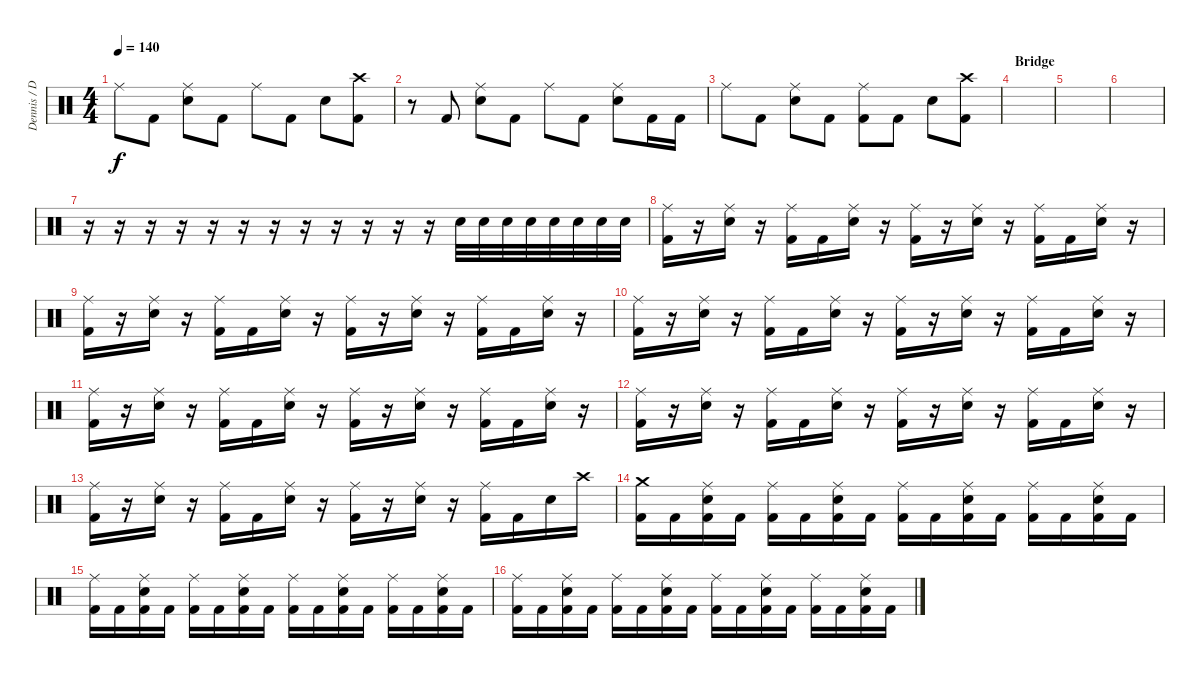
\track ("Dennis / Drums" "Dennis / D") {instrument percussion}
\staff {score}
\articulation defaults
\ts (4 4)
\tempo 140
\clef neutral
\ks c "Ride (middle)".8{dy f} "Kick (hit) 2".8
("Ride (middle)" "Electric Snare (hit)").8 "Kick (hit) 2".8 "Ride (middle)".8 "Kick (hit) 2".8 "Electric Snare (hit)".8 ("Crash high (hit)" "Kick (hit) 2").8 |
r.8 "Kick (hit) 2".8 ("Ride (middle)" "Electric Snare (hit)").8 "Kick (hit) 2".8 "Ride (middle)".8 "Kick (hit) 2".8 ("Ride (middle)" "Electric Snare (hit)").8 "Kick (hit) 2".16 "Kick (hit) 2".16 |
"Ride (middle)".8 "Kick (hit) 2".8 ("Ride (middle)" "Electric Snare (hit)").8 "Kick (hit) 2".8 ("Ride (middle)" "Kick (hit) 2").8 "Kick (hit) 2".8 "Electric Snare (hit)".8 ("Crash high (hit)" "Kick (hit) 2").8 |
\section ("" "Bridge")
|
|
|
r.16 r.16 r.16 r.16 r.16 r.16 r.16 r.16 r.16 r.16 r.16 r.16 "Electric Snare (hit)".32 "Electric Snare (hit)".32 "Electric Snare (hit)".32 "Electric Snare (hit)".32 "Electric Snare (hit)".32 "Electric Snare (hit)".32 "Electric Snare (hit)".32 "Electric Snare (hit)".32 |
("Ride (middle)" "Kick (hit) 2").16 r.16 ("Ride (middle)" "Electric Snare (hit)").16 r.16 ("Ride (middle)" "Kick (hit) 2").16 "Kick (hit) 2".16 ("Ride (middle)" "Electric Snare (hit)").16 r.16 ("Ride (middle)" "Kick (hit) 2").16 r.16 ("Ride (middle)" "Electric Snare (hit)").16 r.16 ("Ride (middle)" "Kick (hit) 2").16 "Kick (hit) 2".16 ("Ride (middle)" "Electric Snare (hit)").16 r.16 |
("Ride (middle)" "Kick (hit) 2").16 r.16 ("Ride (middle)" "Electric Snare (hit)").16 r.16 ("Ride (middle)" "Kick (hit) 2").16 "Kick (hit) 2".16 ("Ride (middle)" "Electric Snare (hit)").16 r.16 ("Ride (middle)" "Kick (hit) 2").16 r.16 ("Ride (middle)" "Electric Snare (hit)").16 r.16 ("Ride (middle)" "Kick (hit) 2").16 "Kick (hit) 2".16 ("Ride (middle)" "Electric Snare (hit)").16 r.16 |
("Ride (middle)" "Kick (hit) 2").16 r.16 ("Ride (middle)" "Electric Snare (hit)").16 r.16 ("Ride (middle)" "Kick (hit) 2").16 "Kick (hit) 2".16 ("Ride (middle)" "Electric Snare (hit)").16 r.16 ("Ride (middle)" "Kick (hit) 2").16 r.16 ("Ride (middle)" "Electric Snare (hit)").16 r.16 ("Ride (middle)" "Kick (hit) 2").16 "Kick (hit) 2".16 ("Ride (middle)" "Electric Snare (hit)").16 r.16 |
("Ride (middle)" "Kick (hit) 2").16 r.16 ("Ride (middle)" "Electric Snare (hit)").16 r.16 ("Ride (middle)" "Kick (hit) 2").16 "Kick (hit) 2".16 ("Ride (middle)" "Electric Snare (hit)").16 r.16 ("Ride (middle)" "Kick (hit) 2").16 r.16 ("Ride (middle)" "Electric Snare (hit)").16 r.16 ("Ride (middle)" "Kick (hit) 2").16 "Kick (hit) 2".16 ("Ride (middle)" "Electric Snare (hit)").16 r.16 |
("Ride (middle)" "Kick (hit) 2").16 r.16 ("Ride (middle)" "Electric Snare (hit)").16 r.16 ("Ride (middle)" "Kick (hit) 2").16 "Kick (hit) 2".16 ("Ride (middle)" "Electric Snare (hit)").16 r.16 ("Ride (middle)" "Kick (hit) 2").16 r.16 ("Ride (middle)" "Electric Snare (hit)").16 r.16 ("Ride (middle)" "Kick (hit) 2").16 "Kick (hit) 2".16 ("Ride (middle)" "Electric Snare (hit)").16 r.16 |
("Ride (middle)" "Kick (hit) 2").16 r.16 ("Ride (middle)" "Electric Snare (hit)").16 r.16 ("Ride (middle)" "Kick (hit) 2").16 "Kick (hit) 2".16 ("Ride (middle)" "Electric Snare (hit)").16 r.16 ("Ride (middle)" "Kick (hit) 2").16 r.16 ("Ride (middle)" "Electric Snare (hit)").16 r.16 ("Ride (middle)" "Kick (hit) 2").16 "Kick (hit) 2".16 "Electric Snare (hit)".16 "Crash high (hit)".16 |
("Crash medium (hit)" "Kick (hit) 2").16 "Kick (hit) 2".16 ("Ride (middle)" "Electric Snare (hit)" "Kick (hit) 2").16 "Kick (hit) 2".16 ("Ride (middle)" "Kick (hit) 2").16 "Kick (hit) 2".16 ("Ride (middle)" "Electric Snare (hit)" "Kick (hit) 2").16 "Kick (hit) 2".16 ("Ride (middle)" "Kick (hit) 2").16 "Kick (hit) 2".16 ("Ride (middle)" "Electric Snare (hit)" "Kick (hit) 2").16 "Kick (hit) 2".16 ("Ride (middle)" "Kick (hit) 2").16 "Kick (hit) 2".16 ("Ride (middle)" "Electric Snare (hit)" "Kick (hit) 2").16 "Kick (hit) 2".16 |
("Ride (middle)" "Kick (hit) 2").16 "Kick (hit) 2".16 ("Ride (middle)" "Electric Snare (hit)" "Kick (hit) 2").16 "Kick (hit) 2".16 ("Ride (middle)" "Kick (hit) 2").16 "Kick (hit) 2".16 ("Ride (middle)" "Electric Snare (hit)" "Kick (hit) 2").16 "Kick (hit) 2".16 ("Ride (middle)" "Kick (hit) 2").16 "Kick (hit) 2".16 ("Ride (middle)" "Electric Snare (hit)" "Kick (hit) 2").16 "Kick (hit) 2".16 ("Ride (middle)" "Kick (hit) 2").16 "Kick (hit) 2".16 ("Ride (middle)" "Electric Snare (hit)" "Kick (hit) 2").16 "Kick (hit) 2".16 |
("Ride (middle)" "Kick (hit) 2").16 "Kick (hit) 2".16 ("Ride (middle)" "Electric Snare (hit)" "Kick (hit) 2").16 "Kick (hit) 2".16 ("Ride (middle)" "Kick (hit) 2").16 "Kick (hit) 2".16 ("Ride (middle)" "Electric Snare (hit)" "Kick (hit) 2").16 "Kick (hit) 2".16 ("Ride (middle)" "Kick (hit) 2").16 "Kick (hit) 2".16 ("Ride (middle)" "Electric Snare (hit)" "Kick (hit) 2").16 "Kick (hit) 2".16 ("Ride (middle)" "Kick (hit) 2").16 "Kick (hit) 2".16 ("Ride (middle)" "Electric Snare (hit)" "Kick (hit) 2").16 "Kick (hit) 2".16
